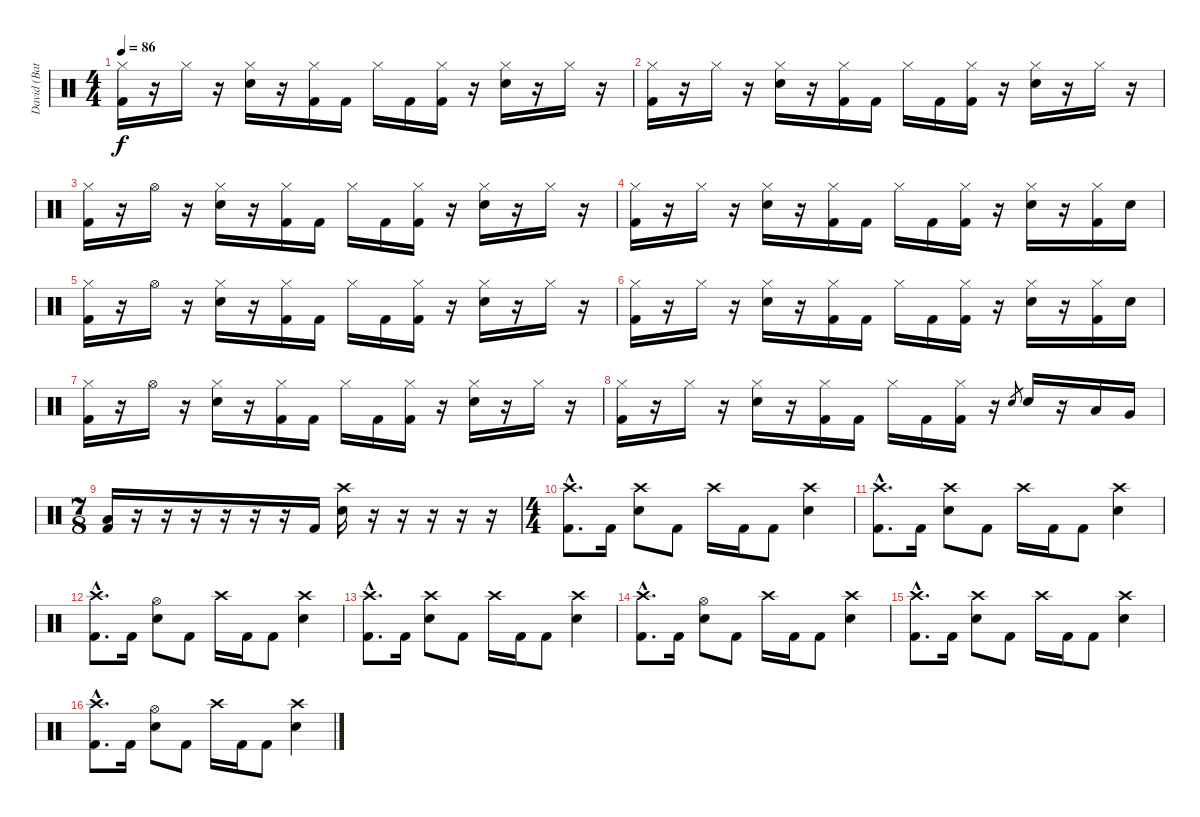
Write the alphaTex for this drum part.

\track ("David (Batterie)" "David (Bat") {instrument percussion}
\staff {score}
\articulation defaults
\ts (4 4)
\tempo 86
\clef neutral
\ks c
("Hi-Hat (closed)" "Kick (hit) 2").16{dy f} r.16 "Hi-Hat (closed)".16 r.16 ("Hi-Hat (closed)" "Electric Snare (hit)").16 r.16 ("Hi-Hat (closed)" "Kick (hit) 2").16 "Kick (hit) 2".16 "Hi-Hat (closed)".16 "Kick (hit) 2".16 ("Hi-Hat (closed)" "Kick (hit) 2").16 r.16 ("Hi-Hat (closed)" "Electric Snare (hit)").16 r.16 "Hi-Hat (closed)".16 r.16 |
("Hi-Hat (closed)" "Kick (hit) 2").16 r.16 "Hi-Hat (closed)".16 r.16 ("Hi-Hat (closed)" "Electric Snare (hit)").16 r.16 ("Hi-Hat (closed)" "Kick (hit) 2").16 "Kick (hit) 2".16 "Hi-Hat (closed)".16 "Kick (hit) 2".16 ("Hi-Hat (closed)" "Kick (hit) 2").16 r.16 ("Hi-Hat (closed)" "Electric Snare (hit)").16 r.16 "Hi-Hat (closed)".16 r.16 |
("Hi-Hat (closed)" "Kick (hit) 2").16 r.16 "Hi-Hat (open)".16 r.16 ("Hi-Hat (closed)" "Electric Snare (hit)").16 r.16 ("Hi-Hat (closed)" "Kick (hit) 2").16 "Kick (hit) 2".16 "Hi-Hat (closed)".16 "Kick (hit) 2".16 ("Hi-Hat (closed)" "Kick (hit) 2").16 r.16 ("Hi-Hat (closed)" "Electric Snare (hit)").16 r.16 "Hi-Hat (closed)".16 r.16 |
("Hi-Hat (closed)" "Kick (hit) 2").16 r.16 "Hi-Hat (closed)".16 r.16 ("Hi-Hat (closed)" "Electric Snare (hit)").16 r.16 ("Hi-Hat (closed)" "Kick (hit) 2").16 "Kick (hit) 2".16 "Hi-Hat (closed)".16 "Kick (hit) 2".16 ("Hi-Hat (closed)" "Kick (hit) 2").16 r.16 ("Hi-Hat (closed)" "Electric Snare (hit)").16 r.16 ("Hi-Hat (closed)" "Kick (hit) 2").16 "Electric Snare (hit)".16 |
("Hi-Hat (closed)" "Kick (hit) 2").16 r.16 "Hi-Hat (open)".16 r.16 ("Hi-Hat (closed)" "Electric Snare (hit)").16 r.16 ("Hi-Hat (closed)" "Kick (hit) 2").16 "Kick (hit) 2".16 "Hi-Hat (closed)".16 "Kick (hit) 2".16 ("Hi-Hat (closed)" "Kick (hit) 2").16 r.16 ("Hi-Hat (closed)" "Electric Snare (hit)").16 r.16 "Hi-Hat (closed)".16 r.16 |
("Hi-Hat (closed)" "Kick (hit) 2").16 r.16 "Hi-Hat (closed)".16 r.16 ("Hi-Hat (closed)" "Electric Snare (hit)").16 r.16 ("Hi-Hat (closed)" "Kick (hit) 2").16 "Kick (hit) 2".16 "Hi-Hat (closed)".16 "Kick (hit) 2".16 ("Hi-Hat (closed)" "Kick (hit) 2").16 r.16 ("Hi-Hat (closed)" "Electric Snare (hit)").16 r.16 ("Hi-Hat (closed)" "Kick (hit) 2").16 "Electric Snare (hit)".16 |
("Hi-Hat (closed)" "Kick (hit) 2").16 r.16 "Hi-Hat (open)".16 r.16 ("Hi-Hat (closed)" "Electric Snare (hit)").16 r.16 ("Hi-Hat (closed)" "Kick (hit) 2").16 "Kick (hit) 2".16 "Hi-Hat (closed)".16 "Kick (hit) 2".16 ("Hi-Hat (closed)" "Kick (hit) 2").16 r.16 ("Hi-Hat (closed)" "Electric Snare (hit)").16 r.16 "Hi-Hat (closed)".16 r.16 |
("Hi-Hat (closed)" "Kick (hit) 2").16 r.16 "Hi-Hat (closed)".16 r.16 ("Hi-Hat (closed)" "Electric Snare (hit)").16 r.16 ("Hi-Hat (closed)" "Kick (hit) 2").16 "Kick (hit) 2".16 "Hi-Hat (closed)".16 "Kick (hit) 2".16 ("Hi-Hat (closed)" "Kick (hit) 2").16 r.16 "Electric Snare (hit)".8{gr} "Electric Snare (hit)".16 r.16 "Low Tom (hit)".16 "Very Low Tom (hit)".16 |
\ts (7 8)
("Low Floor Tom (hit)" "Kick (hit) 2").16 r.16 r.16 r.16 r.16 r.16 r.16 "Kick (hit) 2".16 ("Crash high (hit)" "Electric Snare (hit)").16 r.16 r.16 r.16 r.16 r.16 |
\ts (4 4)
("Crash high (hit)"{hac} "Kick (hit) 2"{hac}).8{d} "Kick (hit) 2".16 ("Crash high (hit)" "Electric Snare (hit)").8 "Kick (hit) 2".8 "Crash high (hit)".16 "Kick (hit) 2".16 "Kick (hit) 2".8 ("Crash high (hit)" "Electric Snare (hit)").4 |
("Crash high (hit)"{hac} "Kick (hit) 2"{hac}).8{d} "Kick (hit) 2".16 ("Crash high (hit)" "Electric Snare (hit)").8 "Kick (hit) 2".8 "Crash high (hit)".16 "Kick (hit) 2".16 "Kick (hit) 2".8 ("Crash high (hit)" "Electric Snare (hit)").4 |
("Crash high (hit)"{hac} "Kick (hit) 2"{hac}).8{d} "Kick (hit) 2".16 ("Hi-Hat (open)" "Electric Snare (hit)").8 "Kick (hit) 2".8 "Crash high (hit)".16 "Kick (hit) 2".16 "Kick (hit) 2".8 ("Crash high (hit)" "Electric Snare (hit)").4 |
("Crash high (hit)"{hac} "Kick (hit) 2"{hac}).8{d} "Kick (hit) 2".16 ("Crash high (hit)" "Electric Snare (hit)").8 "Kick (hit) 2".8 "Crash high (hit)".16 "Kick (hit) 2".16 "Kick (hit) 2".8 ("Crash high (hit)" "Electric Snare (hit)").4 |
("Crash high (hit)"{hac} "Kick (hit) 2"{hac}).8{d} "Kick (hit) 2".16 ("Hi-Hat (open)" "Electric Snare (hit)").8 "Kick (hit) 2".8 "Crash high (hit)".16 "Kick (hit) 2".16 "Kick (hit) 2".8 ("Crash high (hit)" "Electric Snare (hit)").4 |
("Crash high (hit)"{hac} "Kick (hit) 2"{hac}).8{d} "Kick (hit) 2".16 ("Crash high (hit)" "Electric Snare (hit)").8 "Kick (hit) 2".8 "Crash high (hit)".16 "Kick (hit) 2".16 "Kick (hit) 2".8 ("Crash high (hit)" "Electric Snare (hit)").4 |
("Crash high (hit)"{hac} "Kick (hit) 2"{hac}).8{d} "Kick (hit) 2".16 ("Hi-Hat (open)" "Electric Snare (hit)").8 "Kick (hit) 2".8 "Crash high (hit)".16 "Kick (hit) 2".16 "Kick (hit) 2".8 ("Crash high (hit)" "Electric Snare (hit)").4
